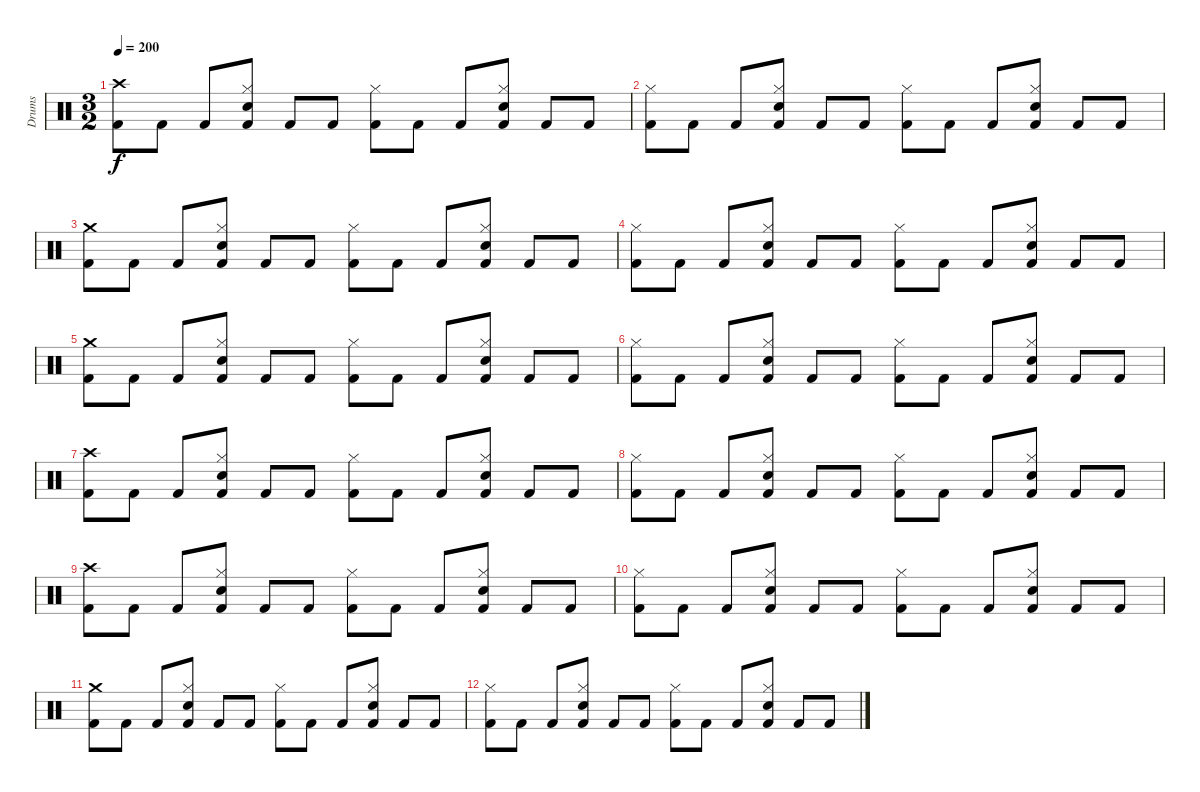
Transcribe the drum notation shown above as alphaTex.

\track ("Drums" "Drums") {instrument percussion}
\staff {score}
\articulation defaults
\ts (3 2)
\tempo 200
\clef neutral
\ks c
("Kick (hit) 2" "Crash high (hit)").8{dy f} "Kick (hit) 2".8 "Kick (hit) 2".8 ("Kick (hit) 2" "Hi-Hat (closed)" "Snare (hit) 2").8 "Kick (hit) 2".8 "Kick (hit) 2".8 ("Kick (hit) 2" "Hi-Hat (closed)").8 "Kick (hit) 2".8 "Kick (hit) 2".8 ("Kick (hit) 2" "Hi-Hat (closed)" "Snare (hit) 2").8 "Kick (hit) 2".8 "Kick (hit) 2".8 |
("Kick (hit) 2" "Hi-Hat (closed)").8 "Kick (hit) 2".8 "Kick (hit) 2".8 ("Kick (hit) 2" "Hi-Hat (closed)" "Snare (hit) 2").8 "Kick (hit) 2".8 "Kick (hit) 2".8 ("Kick (hit) 2" "Hi-Hat (closed)").8 "Kick (hit) 2".8 "Kick (hit) 2".8 ("Kick (hit) 2" "Hi-Hat (closed)" "Snare (hit) 2").8 "Kick (hit) 2".8 "Kick (hit) 2".8 |
("Kick (hit) 2" "Crash medium (hit)").8 "Kick (hit) 2".8 "Kick (hit) 2".8 ("Kick (hit) 2" "Hi-Hat (closed)" "Snare (hit) 2").8 "Kick (hit) 2".8 "Kick (hit) 2".8 ("Kick (hit) 2" "Hi-Hat (closed)").8 "Kick (hit) 2".8 "Kick (hit) 2".8 ("Kick (hit) 2" "Hi-Hat (closed)" "Snare (hit) 2").8 "Kick (hit) 2".8 "Kick (hit) 2".8 |
("Kick (hit) 2" "Hi-Hat (closed)").8 "Kick (hit) 2".8 "Kick (hit) 2".8 ("Kick (hit) 2" "Hi-Hat (closed)" "Snare (hit) 2").8 "Kick (hit) 2".8 "Kick (hit) 2".8 ("Kick (hit) 2" "Hi-Hat (closed)").8 "Kick (hit) 2".8 "Kick (hit) 2".8 ("Kick (hit) 2" "Hi-Hat (closed)" "Snare (hit) 2").8 "Kick (hit) 2".8 "Kick (hit) 2".8 |
("Kick (hit) 2" "Crash medium (hit)").8 "Kick (hit) 2".8 "Kick (hit) 2".8 ("Kick (hit) 2" "Hi-Hat (closed)" "Snare (hit) 2").8 "Kick (hit) 2".8 "Kick (hit) 2".8 ("Kick (hit) 2" "Hi-Hat (closed)").8 "Kick (hit) 2".8 "Kick (hit) 2".8 ("Kick (hit) 2" "Hi-Hat (closed)" "Snare (hit) 2").8 "Kick (hit) 2".8 "Kick (hit) 2".8 |
("Kick (hit) 2" "Hi-Hat (closed)").8 "Kick (hit) 2".8 "Kick (hit) 2".8 ("Kick (hit) 2" "Hi-Hat (closed)" "Snare (hit) 2").8 "Kick (hit) 2".8 "Kick (hit) 2".8 ("Kick (hit) 2" "Hi-Hat (closed)").8 "Kick (hit) 2".8 "Kick (hit) 2".8 ("Kick (hit) 2" "Hi-Hat (closed)" "Snare (hit) 2").8 "Kick (hit) 2".8 "Kick (hit) 2".8 |
("Kick (hit) 2" "Crash high (hit)").8 "Kick (hit) 2".8 "Kick (hit) 2".8 ("Kick (hit) 2" "Hi-Hat (closed)" "Snare (hit) 2").8 "Kick (hit) 2".8 "Kick (hit) 2".8 ("Kick (hit) 2" "Hi-Hat (closed)").8 "Kick (hit) 2".8 "Kick (hit) 2".8 ("Kick (hit) 2" "Hi-Hat (closed)" "Snare (hit) 2").8 "Kick (hit) 2".8 "Kick (hit) 2".8 |
("Kick (hit) 2" "Hi-Hat (closed)").8 "Kick (hit) 2".8 "Kick (hit) 2".8 ("Kick (hit) 2" "Hi-Hat (closed)" "Snare (hit) 2").8 "Kick (hit) 2".8 "Kick (hit) 2".8 ("Kick (hit) 2" "Hi-Hat (closed)").8 "Kick (hit) 2".8 "Kick (hit) 2".8 ("Kick (hit) 2" "Hi-Hat (closed)" "Snare (hit) 2").8 "Kick (hit) 2".8 "Kick (hit) 2".8 |
("Kick (hit) 2" "Crash high (hit)").8{volume 9} "Kick (hit) 2".8 "Kick (hit) 2".8 ("Kick (hit) 2" "Hi-Hat (closed)" "Snare (hit) 2").8 "Kick (hit) 2".8 "Kick (hit) 2".8 ("Kick (hit) 2" "Hi-Hat (closed)").8 "Kick (hit) 2".8 "Kick (hit) 2".8 ("Kick (hit) 2" "Hi-Hat (closed)" "Snare (hit) 2").8 "Kick (hit) 2".8 "Kick (hit) 2".8 |
("Kick (hit) 2" "Hi-Hat (closed)").8{volume 7} "Kick (hit) 2".8 "Kick (hit) 2".8 ("Kick (hit) 2" "Hi-Hat (closed)" "Snare (hit) 2").8 "Kick (hit) 2".8 "Kick (hit) 2".8 ("Kick (hit) 2" "Hi-Hat (closed)").8 "Kick (hit) 2".8 "Kick (hit) 2".8 ("Kick (hit) 2" "Hi-Hat (closed)" "Snare (hit) 2").8 "Kick (hit) 2".8 "Kick (hit) 2".8 |
("Kick (hit) 2" "Crash medium (hit)").8{volume 4} "Kick (hit) 2".8 "Kick (hit) 2".8 ("Kick (hit) 2" "Hi-Hat (closed)" "Snare (hit) 2").8 "Kick (hit) 2".8 "Kick (hit) 2".8 ("Kick (hit) 2" "Hi-Hat (closed)").8 "Kick (hit) 2".8 "Kick (hit) 2".8 ("Kick (hit) 2" "Hi-Hat (closed)" "Snare (hit) 2").8 "Kick (hit) 2".8 "Kick (hit) 2".8 |
("Kick (hit) 2" "Hi-Hat (closed)").8{volume 0} "Kick (hit) 2".8 "Kick (hit) 2".8 ("Kick (hit) 2" "Hi-Hat (closed)" "Snare (hit) 2").8 "Kick (hit) 2".8 "Kick (hit) 2".8 ("Kick (hit) 2" "Hi-Hat (closed)").8 "Kick (hit) 2".8 "Kick (hit) 2".8 ("Kick (hit) 2" "Hi-Hat (closed)" "Snare (hit) 2").8 "Kick (hit) 2".8 "Kick (hit) 2".8
